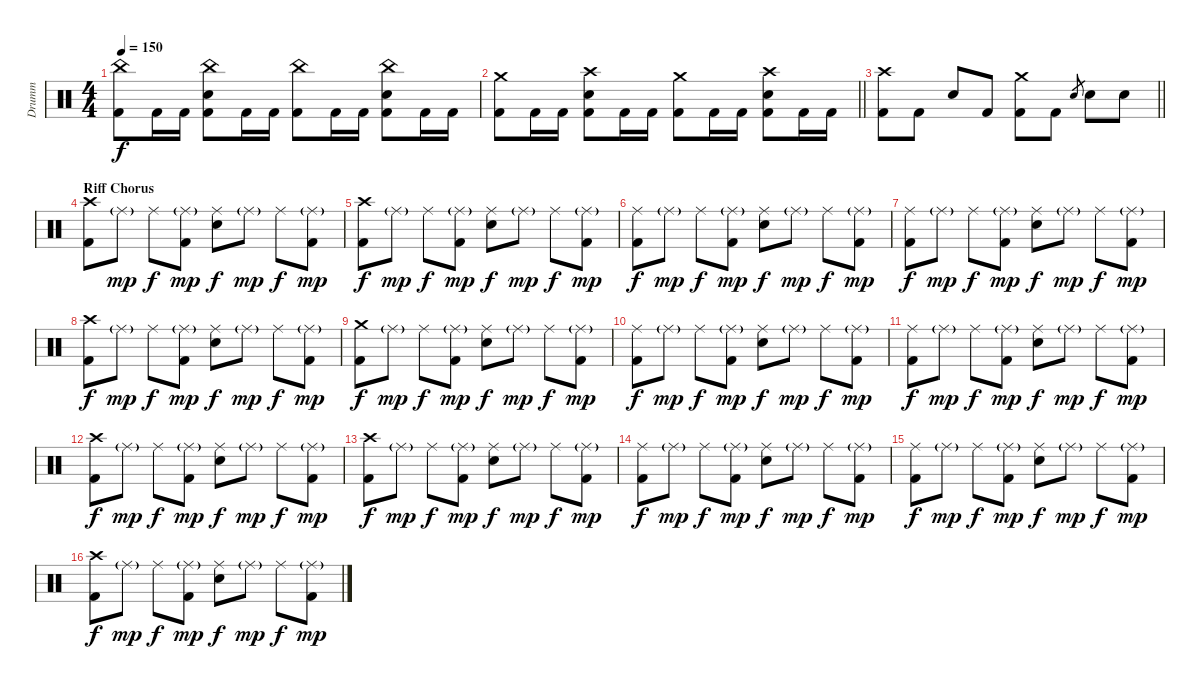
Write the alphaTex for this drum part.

\track ("Drumm" "Drumm") {instrument percussion}
\staff {score}
\articulation defaults
\ts (4 4)
\tempo 150
\clef neutral
\ks c
("China (hit)" "Kick (hit) 2").8{dy f} "Kick (hit) 2".16 "Kick (hit) 2".16 ("China (hit)" "Snare (hit) 2" "Kick (hit) 2").8 "Kick (hit) 2".16 "Kick (hit) 2".16 ("China (hit)" "Kick (hit) 2").8 "Kick (hit) 2".16 "Kick (hit) 2".16 ("China (hit)" "Snare (hit) 2" "Kick (hit) 2").8 "Kick (hit) 2".16 "Kick (hit) 2".16 |
\barLineRight lightlight
("Crash medium (hit)" "Kick (hit) 2").8 "Kick (hit) 2".16 "Kick (hit) 2".16 ("Crash high (hit)" "Snare (hit) 2" "Kick (hit) 2").8 "Kick (hit) 2".16 "Kick (hit) 2".16 ("Crash medium (hit)" "Kick (hit) 2").8 "Kick (hit) 2".16 "Kick (hit) 2".16 ("Crash high (hit)" "Snare (hit) 2" "Kick (hit) 2").8 "Kick (hit) 2".16 "Kick (hit) 2".16 |
\barLineRight lightlight
("Crash high (hit)" "Kick (hit) 2").8 "Kick (hit) 2".8 "Snare (hit) 2".8 "Kick (hit) 2".8 ("Crash medium (hit)" "Kick (hit) 2").8 "Kick (hit) 2".8 "Snare (hit) 2".8{gr} "Snare (hit) 2".8 "Snare (hit) 2".8 |
\section ("" "Riff Chorus")
("Crash high (hit)" "Kick (hit) 2").8 "Ride (middle)"{g}.8{dy mp} "Ride (middle)".8{dy f} ("Ride (middle)"{g} "Kick (hit) 2").8{dy mp} ("Ride (middle)" "Snare (hit) 2").8{dy f} "Ride (middle)"{g}.8{dy mp} "Ride (middle)".8{dy f} ("Ride (middle)"{g} "Kick (hit) 2").8{dy mp} |
("Crash high (hit)" "Kick (hit) 2").8{dy f} "Ride (middle)"{g}.8{dy mp} "Ride (middle)".8{dy f} ("Ride (middle)"{g} "Kick (hit) 2").8{dy mp} ("Ride (middle)" "Snare (hit) 2").8{dy f} "Ride (middle)"{g}.8{dy mp} "Ride (middle)".8{dy f} ("Ride (middle)"{g} "Kick (hit) 2").8{dy mp} |
("Ride (middle)" "Kick (hit) 2").8{dy f} "Ride (middle)"{g}.8{dy mp} "Ride (middle)".8{dy f} ("Ride (middle)"{g} "Kick (hit) 2").8{dy mp} ("Ride (middle)" "Snare (hit) 2").8{dy f} "Ride (middle)"{g}.8{dy mp} "Ride (middle)".8{dy f} ("Ride (middle)"{g} "Kick (hit) 2").8{dy mp} |
("Ride (middle)" "Kick (hit) 2").8{dy f} "Ride (middle)"{g}.8{dy mp} "Ride (middle)".8{dy f} ("Ride (middle)"{g} "Kick (hit) 2").8{dy mp} ("Ride (middle)" "Snare (hit) 2").8{dy f} "Ride (middle)"{g}.8{dy mp} "Ride (middle)".8{dy f} ("Ride (middle)"{g} "Kick (hit) 2").8{dy mp} |
("Crash high (hit)" "Kick (hit) 2").8{dy f} "Ride (middle)"{g}.8{dy mp} "Ride (middle)".8{dy f} ("Ride (middle)"{g} "Kick (hit) 2").8{dy mp} ("Ride (middle)" "Snare (hit) 2").8{dy f} "Ride (middle)"{g}.8{dy mp} "Ride (middle)".8{dy f} ("Ride (middle)"{g} "Kick (hit) 2").8{dy mp} |
("Crash medium (hit)" "Kick (hit) 2").8{dy f} "Ride (middle)"{g}.8{dy mp} "Ride (middle)".8{dy f} ("Ride (middle)"{g} "Kick (hit) 2").8{dy mp} ("Ride (middle)" "Snare (hit) 2").8{dy f} "Ride (middle)"{g}.8{dy mp} "Ride (middle)".8{dy f} ("Ride (middle)"{g} "Kick (hit) 2").8{dy mp} |
("Ride (middle)" "Kick (hit) 2").8{dy f} "Ride (middle)"{g}.8{dy mp} "Ride (middle)".8{dy f} ("Ride (middle)"{g} "Kick (hit) 2").8{dy mp} ("Ride (middle)" "Snare (hit) 2").8{dy f} "Ride (middle)"{g}.8{dy mp} "Ride (middle)".8{dy f} ("Ride (middle)"{g} "Kick (hit) 2").8{dy mp} |
("Ride (middle)" "Kick (hit) 2").8{dy f} "Ride (middle)"{g}.8{dy mp} "Ride (middle)".8{dy f} ("Ride (middle)"{g} "Kick (hit) 2").8{dy mp} ("Ride (middle)" "Snare (hit) 2").8{dy f} "Ride (middle)"{g}.8{dy mp} "Ride (middle)".8{dy f} ("Ride (middle)"{g} "Kick (hit) 2").8{dy mp} |
("Crash high (hit)" "Kick (hit) 2").8{dy f} "Ride (middle)"{g}.8{dy mp} "Ride (middle)".8{dy f} ("Ride (middle)"{g} "Kick (hit) 2").8{dy mp} ("Ride (middle)" "Snare (hit) 2").8{dy f} "Ride (middle)"{g}.8{dy mp} "Ride (middle)".8{dy f} ("Ride (middle)"{g} "Kick (hit) 2").8{dy mp} |
("Crash high (hit)" "Kick (hit) 2").8{dy f} "Ride (middle)"{g}.8{dy mp} "Ride (middle)".8{dy f} ("Ride (middle)"{g} "Kick (hit) 2").8{dy mp} ("Ride (middle)" "Snare (hit) 2").8{dy f} "Ride (middle)"{g}.8{dy mp} "Ride (middle)".8{dy f} ("Ride (middle)"{g} "Kick (hit) 2").8{dy mp} |
("Ride (middle)" "Kick (hit) 2").8{dy f} "Ride (middle)"{g}.8{dy mp} "Ride (middle)".8{dy f} ("Ride (middle)"{g} "Kick (hit) 2").8{dy mp} ("Ride (middle)" "Snare (hit) 2").8{dy f} "Ride (middle)"{g}.8{dy mp} "Ride (middle)".8{dy f} ("Ride (middle)"{g} "Kick (hit) 2").8{dy mp} |
("Ride (middle)" "Kick (hit) 2").8{dy f} "Ride (middle)"{g}.8{dy mp} "Ride (middle)".8{dy f} ("Ride (middle)"{g} "Kick (hit) 2").8{dy mp} ("Ride (middle)" "Snare (hit) 2").8{dy f} "Ride (middle)"{g}.8{dy mp} "Ride (middle)".8{dy f} ("Ride (middle)"{g} "Kick (hit) 2").8{dy mp} |
("Crash high (hit)" "Kick (hit) 2").8{dy f} "Ride (middle)"{g}.8{dy mp} "Ride (middle)".8{dy f} ("Ride (middle)"{g} "Kick (hit) 2").8{dy mp} ("Ride (middle)" "Snare (hit) 2").8{dy f} "Ride (middle)"{g}.8{dy mp} "Ride (middle)".8{dy f} ("Ride (middle)"{g} "Kick (hit) 2").8{dy mp}
